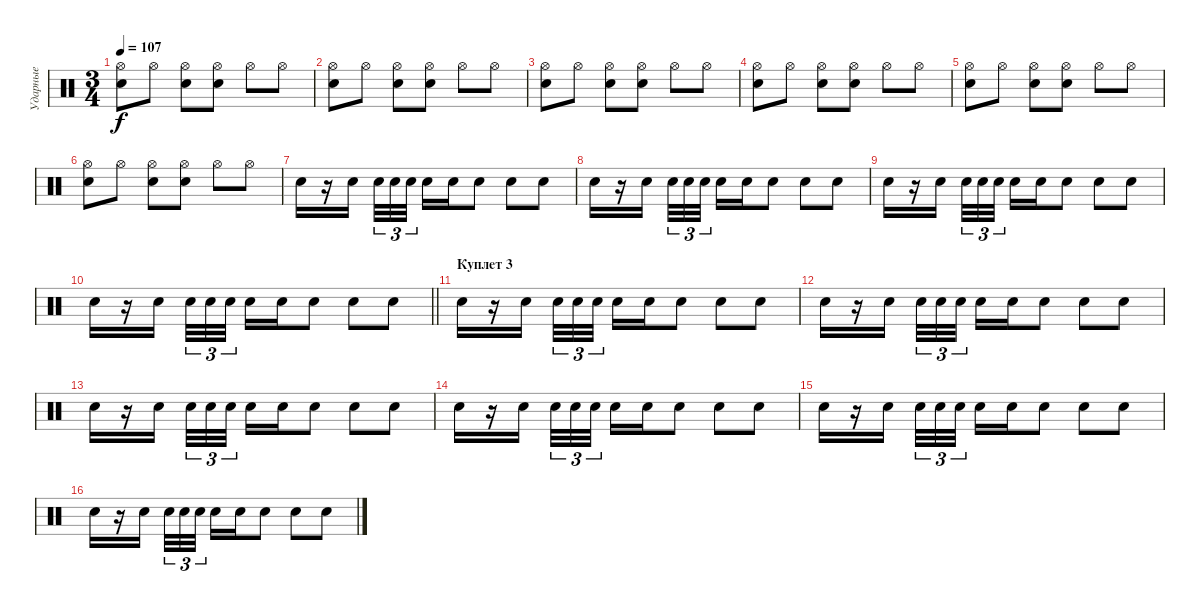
\track ("Ударные" "Ударные") {instrument percussion}
\staff {score}
\articulation defaults
\ts (3 4)
\tempo 107
\clef neutral
\ks c
("Hi-Hat (open)" "Snare (hit) 2").8{dy f} "Hi-Hat (open)".8 ("Hi-Hat (open)" "Snare (hit) 2").8 ("Hi-Hat (open)" "Snare (hit) 2").8 "Hi-Hat (open)".8 "Hi-Hat (open)".8 |
("Hi-Hat (open)" "Snare (hit) 2").8 "Hi-Hat (open)".8 ("Hi-Hat (open)" "Snare (hit) 2").8 ("Hi-Hat (open)" "Snare (hit) 2").8 "Hi-Hat (open)".8 "Hi-Hat (open)".8 |
("Hi-Hat (open)" "Snare (hit) 2").8 "Hi-Hat (open)".8 ("Hi-Hat (open)" "Snare (hit) 2").8 ("Hi-Hat (open)" "Snare (hit) 2").8 "Hi-Hat (open)".8 "Hi-Hat (open)".8 |
("Hi-Hat (open)" "Snare (hit) 2").8 "Hi-Hat (open)".8 ("Hi-Hat (open)" "Snare (hit) 2").8 ("Hi-Hat (open)" "Snare (hit) 2").8 "Hi-Hat (open)".8 "Hi-Hat (open)".8 |
("Hi-Hat (open)" "Snare (hit) 2").8 "Hi-Hat (open)".8 ("Hi-Hat (open)" "Snare (hit) 2").8 ("Hi-Hat (open)" "Snare (hit) 2").8 "Hi-Hat (open)".8 "Hi-Hat (open)".8 |
("Hi-Hat (open)" "Snare (hit) 2").8 "Hi-Hat (open)".8 ("Hi-Hat (open)" "Snare (hit) 2").8 ("Hi-Hat (open)" "Snare (hit) 2").8 "Hi-Hat (open)".8 "Hi-Hat (open)".8 |
"Snare (hit) 2".16{volume 3} r.16 "Snare (hit) 2".16{beam splitsecondary} "Snare (hit) 2".32{tu (3 2)} "Snare (hit) 2".32{tu (3 2)} "Snare (hit) 2".32{tu (3 2)} "Snare (hit) 2".16 "Snare (hit) 2".16 "Snare (hit) 2".8 "Snare (hit) 2".8 "Snare (hit) 2".8 |
"Snare (hit) 2".16 r.16 "Snare (hit) 2".16{beam splitsecondary} "Snare (hit) 2".32{tu (3 2)} "Snare (hit) 2".32{tu (3 2)} "Snare (hit) 2".32{tu (3 2)} "Snare (hit) 2".16 "Snare (hit) 2".16 "Snare (hit) 2".8 "Snare (hit) 2".8 "Snare (hit) 2".8 |
"Snare (hit) 2".16{volume 3} r.16 "Snare (hit) 2".16{beam splitsecondary} "Snare (hit) 2".32{tu (3 2)} "Snare (hit) 2".32{tu (3 2)} "Snare (hit) 2".32{tu (3 2)} "Snare (hit) 2".16 "Snare (hit) 2".16 "Snare (hit) 2".8 "Snare (hit) 2".8 "Snare (hit) 2".8 |
\barLineRight lightlight "Snare (hit) 2".16
r.16 "Snare (hit) 2".16{beam splitsecondary} "Snare (hit) 2".32{tu (3 2)} "Snare (hit) 2".32{tu (3 2)} "Snare (hit) 2".32{tu (3 2)} "Snare (hit) 2".16 "Snare (hit) 2".16 "Snare (hit) 2".8 "Snare (hit) 2".8 "Snare (hit) 2".8 |
\section ("" "Куплет 3")
"Snare (hit) 2".16{volume 6} r.16 "Snare (hit) 2".16{beam splitsecondary} "Snare (hit) 2".32{tu (3 2)} "Snare (hit) 2".32{tu (3 2)} "Snare (hit) 2".32{tu (3 2)} "Snare (hit) 2".16 "Snare (hit) 2".16 "Snare (hit) 2".8 "Snare (hit) 2".8 "Snare (hit) 2".8 |
"Snare (hit) 2".16 r.16 "Snare (hit) 2".16{beam splitsecondary} "Snare (hit) 2".32{tu (3 2)} "Snare (hit) 2".32{tu (3 2)} "Snare (hit) 2".32{tu (3 2)} "Snare (hit) 2".16 "Snare (hit) 2".16 "Snare (hit) 2".8 "Snare (hit) 2".8 "Snare (hit) 2".8 |
"Snare (hit) 2".16 r.16 "Snare (hit) 2".16{beam splitsecondary} "Snare (hit) 2".32{tu (3 2)} "Snare (hit) 2".32{tu (3 2)} "Snare (hit) 2".32{tu (3 2)} "Snare (hit) 2".16 "Snare (hit) 2".16 "Snare (hit) 2".8 "Snare (hit) 2".8 "Snare (hit) 2".8 |
"Snare (hit) 2".16 r.16 "Snare (hit) 2".16{beam splitsecondary} "Snare (hit) 2".32{tu (3 2)} "Snare (hit) 2".32{tu (3 2)} "Snare (hit) 2".32{tu (3 2)} "Snare (hit) 2".16 "Snare (hit) 2".16 "Snare (hit) 2".8 "Snare (hit) 2".8 "Snare (hit) 2".8 |
"Snare (hit) 2".16 r.16 "Snare (hit) 2".16{beam splitsecondary} "Snare (hit) 2".32{tu (3 2)} "Snare (hit) 2".32{tu (3 2)} "Snare (hit) 2".32{tu (3 2)} "Snare (hit) 2".16 "Snare (hit) 2".16 "Snare (hit) 2".8 "Snare (hit) 2".8 "Snare (hit) 2".8 |
"Snare (hit) 2".16 r.16 "Snare (hit) 2".16{beam splitsecondary} "Snare (hit) 2".32{tu (3 2)} "Snare (hit) 2".32{tu (3 2)} "Snare (hit) 2".32{tu (3 2)} "Snare (hit) 2".16 "Snare (hit) 2".16 "Snare (hit) 2".8 "Snare (hit) 2".8 "Snare (hit) 2".8
